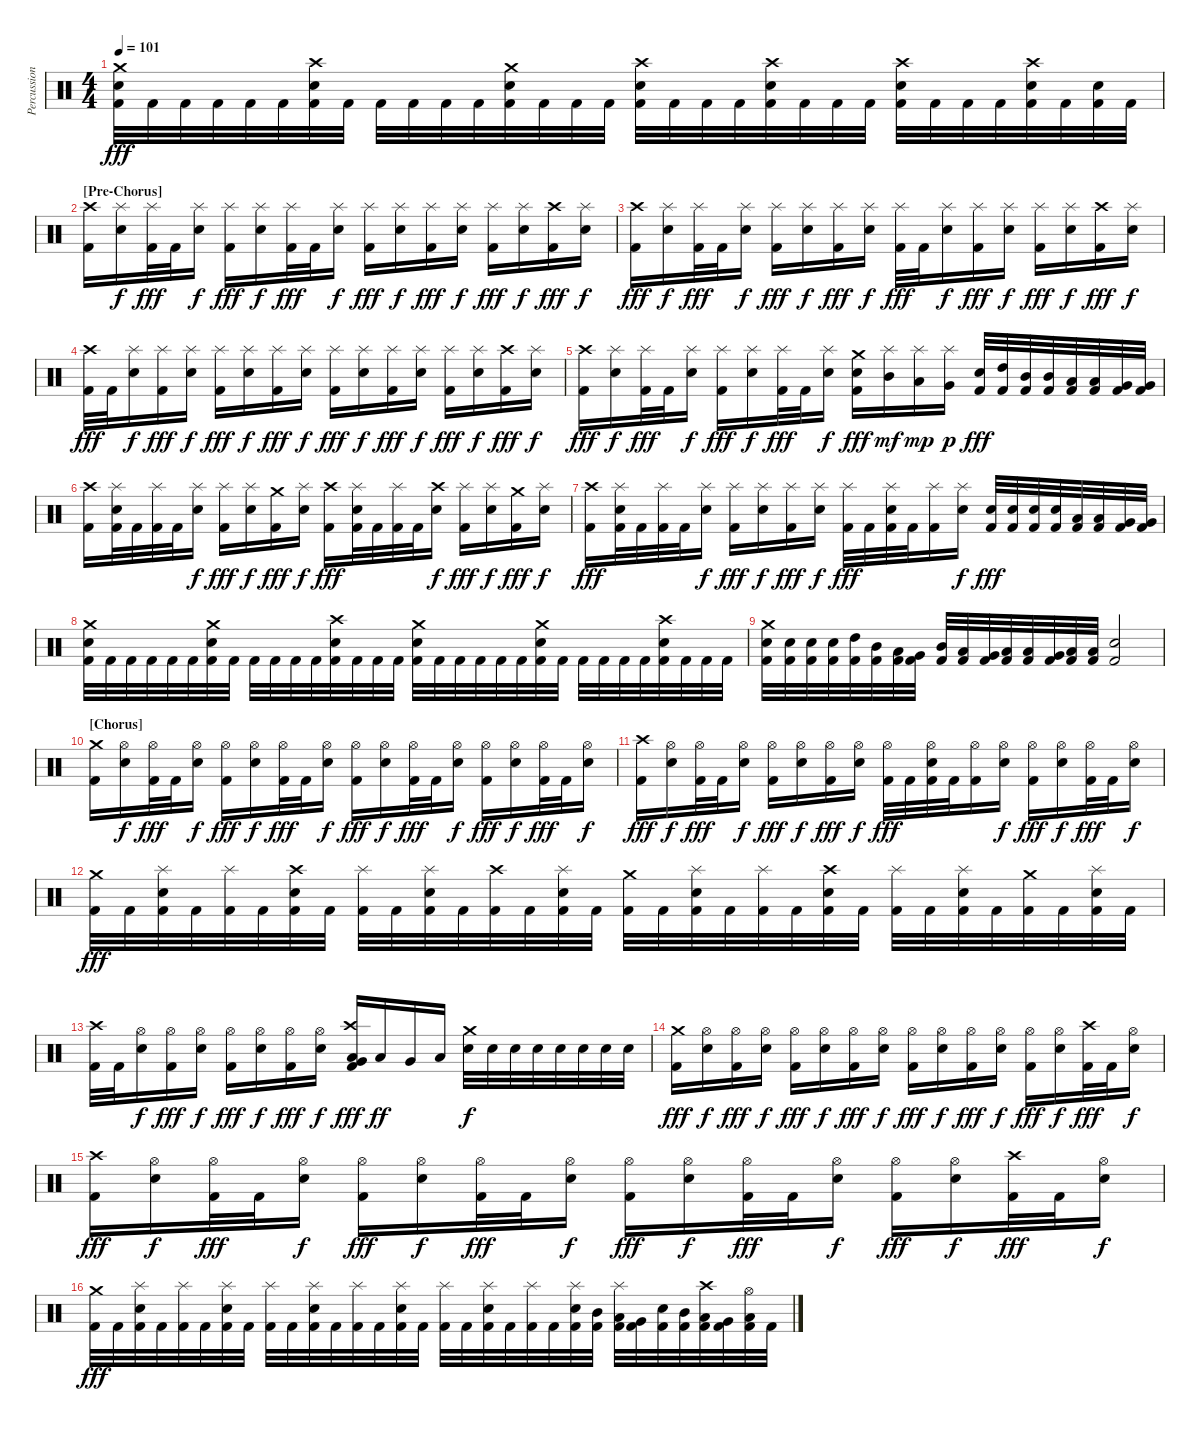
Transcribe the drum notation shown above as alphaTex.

\track ("Percussion" "Percussion") {instrument percussion}
\staff {score}
\articulation defaults
\ts (4 4)
\tempo 101
\clef neutral
\ks c
("Crash medium (hit)" "Snare (hit) 2" "Kick (hit) 2").32{dy fff} "Kick (hit) 2".32 "Kick (hit) 2".32 "Kick (hit) 2".32 "Kick (hit) 2".32 "Kick (hit) 2".32 ("Crash high (hit)" "Snare (hit) 2" "Kick (hit) 2").32 "Kick (hit) 2".32 "Kick (hit) 2".32 "Kick (hit) 2".32 "Kick (hit) 2".32 "Kick (hit) 2".32 ("Crash medium (hit)" "Snare (hit) 2" "Kick (hit) 2").32 "Kick (hit) 2".32 "Kick (hit) 2".32 "Kick (hit) 2".32 ("Crash high (hit)" "Snare (hit) 2" "Kick (hit) 2").32 "Kick (hit) 2".32 "Kick (hit) 2".32 "Kick (hit) 2".32 ("Crash high (hit)" "Snare (hit) 2" "Kick (hit) 2").32 "Kick (hit) 2".32 "Kick (hit) 2".32 "Kick (hit) 2".32 ("Crash high (hit)" "Snare (hit) 2" "Kick (hit) 2").32 "Kick (hit) 2".32 "Kick (hit) 2".32 "Kick (hit) 2".32 ("Crash high (hit)" "Snare (hit) 2" "Kick (hit) 2").32 "Kick (hit) 2".32 ("Snare (hit) 2" "Kick (hit) 2").32 "Kick (hit) 2".32 |
\section ("" "[Pre-Chorus]")
("Crash high (hit)" "Kick (hit) 2").16 ("Splash (hit)" "Snare (hit) 2").16{dy f} ("Splash (hit)" "Kick (hit) 2").32{dy fff} "Kick (hit) 2".32 ("Splash (hit)" "Snare (hit) 2").16{dy f} ("Splash (hit)" "Kick (hit) 2").16{dy fff} ("Splash (hit)" "Snare (hit) 2").16{dy f} ("Splash (hit)" "Kick (hit) 2").32{dy fff} "Kick (hit) 2".32 ("Splash (hit)" "Snare (hit) 2").16{dy f} ("Splash (hit)" "Kick (hit) 2").16{dy fff} ("Splash (hit)" "Snare (hit) 2").16{dy f} ("Splash (hit)" "Kick (hit) 2").16{dy fff} ("Splash (hit)" "Snare (hit) 2").16{dy f} ("Splash (hit)" "Kick (hit) 2").16{dy fff} ("Splash (hit)" "Snare (hit) 2").16{dy f} ("Crash high (hit)" "Kick (hit) 2").16{dy fff} ("Splash (hit)" "Snare (hit) 2").16{dy f} |
("Crash high (hit)" "Kick (hit) 2").16{dy fff} ("Splash (hit)" "Snare (hit) 2").16{dy f} ("Splash (hit)" "Kick (hit) 2").32{dy fff} "Kick (hit) 2".32 ("Splash (hit)" "Snare (hit) 2").16{dy f} ("Splash (hit)" "Kick (hit) 2").16{dy fff} ("Splash (hit)" "Snare (hit) 2").16{dy f} ("Splash (hit)" "Kick (hit) 2").16{dy fff} ("Splash (hit)" "Snare (hit) 2").16{dy f} ("Splash (hit)" "Kick (hit) 2").32{dy fff} "Kick (hit) 2".32 ("Splash (hit)" "Snare (hit) 2").16{dy f} ("Splash (hit)" "Kick (hit) 2").16{dy fff} ("Splash (hit)" "Snare (hit) 2").16{dy f} ("Splash (hit)" "Kick (hit) 2").16{dy fff} ("Splash (hit)" "Snare (hit) 2").16{dy f} ("Crash high (hit)" "Kick (hit) 2").16{dy fff} ("Splash (hit)" "Snare (hit) 2").16{dy f} |
("Crash high (hit)" "Kick (hit) 2").32{dy fff} "Kick (hit) 2".32 ("Splash (hit)" "Snare (hit) 2").16{dy f} ("Splash (hit)" "Kick (hit) 2").16{dy fff} ("Splash (hit)" "Snare (hit) 2").16{dy f} ("Splash (hit)" "Kick (hit) 2").16{dy fff} ("Splash (hit)" "Snare (hit) 2").16{dy f} ("Splash (hit)" "Kick (hit) 2").16{dy fff} ("Splash (hit)" "Snare (hit) 2").16{dy f} ("Splash (hit)" "Kick (hit) 2").16{dy fff} ("Splash (hit)" "Snare (hit) 2").16{dy f} ("Splash (hit)" "Kick (hit) 2").16{dy fff} ("Splash (hit)" "Snare (hit) 2").16{dy f} ("Splash (hit)" "Kick (hit) 2").16{dy fff} ("Splash (hit)" "Snare (hit) 2").16{dy f} ("Crash high (hit)" "Kick (hit) 2").16{dy fff} ("Splash (hit)" "Snare (hit) 2").16{dy f} |
("Crash high (hit)" "Kick (hit) 2").16{dy fff} ("Splash (hit)" "Snare (hit) 2").16{dy f} ("Splash (hit)" "Kick (hit) 2").32{dy fff} "Kick (hit) 2".32 ("Splash (hit)" "Snare (hit) 2").16{dy f} ("Splash (hit)" "Kick (hit) 2").16{dy fff} ("Splash (hit)" "Snare (hit) 2").16{dy f} ("Splash (hit)" "Kick (hit) 2").32{dy fff} "Kick (hit) 2".32 ("Splash (hit)" "Snare (hit) 2").16{dy f} ("Crash medium (hit)" "Snare (hit) 2" "Kick (hit) 2").16{dy fff} ("Splash (hit)" "Mid Tom (hit)").16{dy mf} ("Splash (hit)" "Low Tom (hit)").16{dy mp} ("Splash (hit)" "Very Low Tom (hit)").16{dy p} ("Snare (hit) 2" "Kick (hit) 2").32{dy fff} ("High Tom (hit)" "Kick (hit) 2").32 ("Mid Tom (hit)" "Kick (hit) 2").32 ("Mid Tom (hit)" "Kick (hit) 2").32 ("Low Tom (hit)" "Kick (hit) 2").32 ("Low Tom (hit)" "Kick (hit) 2").32 ("Very Low Tom (hit)" "Kick (hit) 2").32 ("Very Low Tom (hit)" "Kick (hit) 2").32 |
("Crash high (hit)" "Kick (hit) 2").16 ("Splash (hit)" "Snare (hit) 2" "Kick (hit) 2").32 "Kick (hit) 2".32 ("Splash (hit)" "Kick (hit) 2").32 "Kick (hit) 2".32 ("Splash (hit)" "Snare (hit) 2").16{dy f} ("Splash (hit)" "Kick (hit) 2").16{dy fff} ("Splash (hit)" "Snare (hit) 2").16{dy f} ("Crash medium (hit)" "Kick (hit) 2").16{dy fff} ("Splash (hit)" "Snare (hit) 2").16{dy f} ("Crash high (hit)" "Kick (hit) 2").16{dy fff} ("Splash (hit)" "Snare (hit) 2" "Kick (hit) 2").32 "Kick (hit) 2".32 ("Splash (hit)" "Kick (hit) 2").32 "Kick (hit) 2".32 ("Crash high (hit)" "Snare (hit) 2").16{dy f} ("Splash (hit)" "Kick (hit) 2").16{dy fff} ("Splash (hit)" "Snare (hit) 2").16{dy f} ("Crash medium (hit)" "Kick (hit) 2").16{dy fff} ("Splash (hit)" "Snare (hit) 2").16{dy f} |
("Crash high (hit)" "Kick (hit) 2").16{dy fff} ("Splash (hit)" "Snare (hit) 2" "Kick (hit) 2").32 "Kick (hit) 2".32 ("Splash (hit)" "Kick (hit) 2").32 "Kick (hit) 2".32 ("Splash (hit)" "Snare (hit) 2").16{dy f} ("Splash (hit)" "Kick (hit) 2").16{dy fff} ("Splash (hit)" "Snare (hit) 2").16{dy f} ("Splash (hit)" "Kick (hit) 2").16{dy fff} ("Splash (hit)" "Snare (hit) 2").16{dy f} ("Splash (hit)" "Kick (hit) 2").32{dy fff} "Kick (hit) 2".32 ("Splash (hit)" "Snare (hit) 2" "Kick (hit) 2").32 "Kick (hit) 2".32 ("Splash (hit)" "Kick (hit) 2").16 ("Splash (hit)" "Snare (hit) 2").16{dy f} ("Snare (hit) 2" "Kick (hit) 2").32{dy fff} ("Snare (hit) 2" "Kick (hit) 2").32 ("Snare (hit) 2" "Kick (hit) 2").32 ("Snare (hit) 2" "Kick (hit) 2").32 ("Low Tom (hit)" "Kick (hit) 2").32 ("Low Tom (hit)" "Kick (hit) 2").32 ("Very Low Tom (hit)" "Kick (hit) 2").32 ("Very Low Tom (hit)" "Kick (hit) 2").32 |
("Crash medium (hit)" "Snare (hit) 2" "Kick (hit) 2").32 "Kick (hit) 2".32 "Kick (hit) 2".32 "Kick (hit) 2".32 "Kick (hit) 2".32 "Kick (hit) 2".32 ("Crash medium (hit)" "Snare (hit) 2" "Kick (hit) 2").32 "Kick (hit) 2".32 "Kick (hit) 2".32 "Kick (hit) 2".32 "Kick (hit) 2".32 "Kick (hit) 2".32 ("Crash high (hit)" "Snare (hit) 2" "Kick (hit) 2").32 "Kick (hit) 2".32 "Kick (hit) 2".32 "Kick (hit) 2".32 ("Crash medium (hit)" "Snare (hit) 2" "Kick (hit) 2").32 "Kick (hit) 2".32 "Kick (hit) 2".32 "Kick (hit) 2".32 "Kick (hit) 2".32 "Kick (hit) 2".32 ("Crash medium (hit)" "Snare (hit) 2" "Kick (hit) 2").32 "Kick (hit) 2".32 "Kick (hit) 2".32 "Kick (hit) 2".32 "Kick (hit) 2".32 "Kick (hit) 2".32 ("Crash high (hit)" "Snare (hit) 2" "Kick (hit) 2").32 "Kick (hit) 2".32 "Kick (hit) 2".32 "Kick (hit) 2".32 |
("Crash medium (hit)" "Snare (hit) 2" "Kick (hit) 2").32 ("Snare (hit) 2" "Kick (hit) 2").32 ("Snare (hit) 2" "Kick (hit) 2").32 ("Snare (hit) 2" "Kick (hit) 2").32 ("High Tom (hit)" "Kick (hit) 2").32 ("Mid Tom (hit)" "Kick (hit) 2").32 ("Low Tom (hit)" "Kick (hit) 2").32 ("Very Low Tom (hit)" "Kick (hit) 2").32 ("Mid Tom (hit)" "Kick (hit) 2").32 ("Low Tom (hit)" "Kick (hit) 2").32 ("Very Low Tom (hit)" "Kick (hit) 2").32 ("Low Floor Tom (hit)" "Kick (hit) 2").32 ("Low Tom (hit)" "Kick (hit) 2").32 ("Very Low Tom (hit)" "Kick (hit) 2").32 ("Low Floor Tom (hit)" "Kick (hit) 2").32 ("Low Floor Tom (hit)" "Kick (hit) 2").32 ("Snare (hit) 2" "Kick (hit) 2").2 |
\section ("" "[Chorus]")
("Crash medium (hit)" "Kick (hit) 2").16 ("Hi-Hat (open)" "Snare (hit) 2").16{dy f} ("Hi-Hat (open)" "Kick (hit) 2").32{dy fff} "Kick (hit) 2".32 ("Hi-Hat (open)" "Snare (hit) 2").16{dy f} ("Hi-Hat (open)" "Kick (hit) 2").16{dy fff} ("Hi-Hat (open)" "Snare (hit) 2").16{dy f} ("Hi-Hat (open)" "Kick (hit) 2").32{dy fff} "Kick (hit) 2".32 ("Hi-Hat (open)" "Snare (hit) 2").16{dy f} ("Hi-Hat (open)" "Kick (hit) 2").16{dy fff} ("Hi-Hat (open)" "Snare (hit) 2").16{dy f} ("Hi-Hat (open)" "Kick (hit) 2").32{dy fff} "Kick (hit) 2".32 ("Hi-Hat (open)" "Snare (hit) 2").16{dy f} ("Hi-Hat (open)" "Kick (hit) 2").16{dy fff} ("Hi-Hat (open)" "Snare (hit) 2").16{dy f} ("Hi-Hat (open)" "Kick (hit) 2").32{dy fff} "Kick (hit) 2".32 ("Hi-Hat (open)" "Snare (hit) 2").16{dy f} |
("Crash high (hit)" "Kick (hit) 2").16{dy fff} ("Hi-Hat (open)" "Snare (hit) 2").16{dy f} ("Hi-Hat (open)" "Kick (hit) 2").32{dy fff} "Kick (hit) 2".32 ("Hi-Hat (open)" "Snare (hit) 2").16{dy f} ("Hi-Hat (open)" "Kick (hit) 2").16{dy fff} ("Hi-Hat (open)" "Snare (hit) 2").16{dy f} ("Hi-Hat (open)" "Kick (hit) 2").16{dy fff} ("Hi-Hat (open)" "Snare (hit) 2").16{dy f} ("Hi-Hat (open)" "Kick (hit) 2").32{dy fff} "Kick (hit) 2".32 ("Hi-Hat (open)" "Snare (hit) 2" "Kick (hit) 2").32 "Kick (hit) 2".32 ("Hi-Hat (open)" "Kick (hit) 2").16 ("Hi-Hat (open)" "Snare (hit) 2").16{dy f} ("Hi-Hat (open)" "Kick (hit) 2").16{dy fff} ("Hi-Hat (open)" "Snare (hit) 2").16{dy f} ("Hi-Hat (open)" "Kick (hit) 2").32{dy fff} "Kick (hit) 2".32 ("Hi-Hat (open)" "Snare (hit) 2").16{dy f} |
("Crash medium (hit)" "Kick (hit) 2").32{dy fff} "Kick (hit) 2".32 ("Splash (hit)" "Snare (hit) 2" "Kick (hit) 2").32 "Kick (hit) 2".32 ("Splash (hit)" "Kick (hit) 2").32 "Kick (hit) 2".32 ("Crash high (hit)" "Snare (hit) 2" "Kick (hit) 2").32 "Kick (hit) 2".32 ("Splash (hit)" "Kick (hit) 2").32 "Kick (hit) 2".32 ("Splash (hit)" "Snare (hit) 2" "Kick (hit) 2").32 "Kick (hit) 2".32 ("Crash high (hit)" "Kick (hit) 2").32 "Kick (hit) 2".32 ("Splash (hit)" "Snare (hit) 2" "Kick (hit) 2").32 "Kick (hit) 2".32 ("Crash medium (hit)" "Kick (hit) 2").32 "Kick (hit) 2".32 ("Splash (hit)" "Snare (hit) 2" "Kick (hit) 2").32 "Kick (hit) 2".32 ("Splash (hit)" "Kick (hit) 2").32 "Kick (hit) 2".32 ("Crash high (hit)" "Snare (hit) 2" "Kick (hit) 2").32 "Kick (hit) 2".32 ("Splash (hit)" "Kick (hit) 2").32 "Kick (hit) 2".32 ("Splash (hit)" "Snare (hit) 2" "Kick (hit) 2").32 "Kick (hit) 2".32 ("Crash medium (hit)" "Kick (hit) 2").32 "Kick (hit) 2".32 ("Splash (hit)" "Snare (hit) 2" "Kick (hit) 2").32 "Kick (hit) 2".32 |
("Crash high (hit)" "Kick (hit) 2").32 "Kick (hit) 2".32 ("Hi-Hat (open)" "Snare (hit) 2").16{dy f} ("Hi-Hat (open)" "Kick (hit) 2").16{dy fff} ("Hi-Hat (open)" "Snare (hit) 2").16{dy f} ("Hi-Hat (open)" "Kick (hit) 2").16{dy fff} ("Hi-Hat (open)" "Snare (hit) 2").16{dy f} ("Hi-Hat (open)" "Kick (hit) 2").16{dy fff} ("Hi-Hat (open)" "Snare (hit) 2").16{dy f} ("Crash high (hit)" "Very Low Tom (hit)" "Low Tom (hit)" "Kick (hit) 2").16{dy fff} "Low Tom (hit)".16{dy ff} "Very Low Tom (hit)".16 "Low Floor Tom (hit)".16 ("Crash medium (hit)" "Snare (hit) 2").32{dy f} "Snare (hit) 2".32 "Snare (hit) 2".32 "Snare (hit) 2".32 "Snare (hit) 2".32 "Snare (hit) 2".32 "Snare (hit) 2".32 "Snare (hit) 2".32 |
("Crash medium (hit)" "Kick (hit) 2").16{dy fff} ("Hi-Hat (open)" "Snare (hit) 2").16{dy f} ("Hi-Hat (open)" "Kick (hit) 2").16{dy fff} ("Hi-Hat (open)" "Snare (hit) 2").16{dy f} ("Hi-Hat (open)" "Kick (hit) 2").16{dy fff} ("Hi-Hat (open)" "Snare (hit) 2").16{dy f} ("Hi-Hat (open)" "Kick (hit) 2").16{dy fff} ("Hi-Hat (open)" "Snare (hit) 2").16{dy f} ("Hi-Hat (open)" "Kick (hit) 2").16{dy fff} ("Hi-Hat (open)" "Snare (hit) 2").16{dy f} ("Hi-Hat (open)" "Kick (hit) 2").16{dy fff} ("Hi-Hat (open)" "Snare (hit) 2").16{dy f} ("Hi-Hat (open)" "Kick (hit) 2").16{dy fff} ("Hi-Hat (open)" "Snare (hit) 2").16{dy f} ("Crash high (hit)" "Kick (hit) 2").32{dy fff} "Kick (hit) 2".32 ("Hi-Hat (open)" "Snare (hit) 2").16{dy f} |
("Crash high (hit)" "Kick (hit) 2").16{dy fff} ("Hi-Hat (open)" "Snare (hit) 2").16{dy f} ("Hi-Hat (open)" "Kick (hit) 2").32{dy fff} "Kick (hit) 2".32 ("Hi-Hat (open)" "Snare (hit) 2").16{dy f} ("Hi-Hat (open)" "Kick (hit) 2").16{dy fff} ("Hi-Hat (open)" "Snare (hit) 2").16{dy f} ("Hi-Hat (open)" "Kick (hit) 2").32{dy fff} "Kick (hit) 2".32 ("Hi-Hat (open)" "Snare (hit) 2").16{dy f} ("Hi-Hat (open)" "Kick (hit) 2").16{dy fff} ("Hi-Hat (open)" "Snare (hit) 2").16{dy f} ("Hi-Hat (open)" "Kick (hit) 2").32{dy fff} "Kick (hit) 2".32 ("Hi-Hat (open)" "Snare (hit) 2").16{dy f} ("Hi-Hat (open)" "Kick (hit) 2").16{dy fff} ("Hi-Hat (open)" "Snare (hit) 2").16{dy f} ("Crash high (hit)" "Kick (hit) 2").32{dy fff} "Kick (hit) 2".32 ("Hi-Hat (open)" "Snare (hit) 2").16{dy f} |
("Crash medium (hit)" "Kick (hit) 2").32{dy fff} "Kick (hit) 2".32 ("Splash (hit)" "Snare (hit) 2" "Kick (hit) 2").32 "Kick (hit) 2".32 ("Splash (hit)" "Kick (hit) 2").32 "Kick (hit) 2".32 ("Splash (hit)" "Snare (hit) 2" "Kick (hit) 2").32 "Kick (hit) 2".32 ("Splash (hit)" "Kick (hit) 2").32 "Kick (hit) 2".32 ("Splash (hit)" "Snare (hit) 2" "Kick (hit) 2").32 "Kick (hit) 2".32 ("Splash (hit)" "Kick (hit) 2").32 "Kick (hit) 2".32 ("Splash (hit)" "Snare (hit) 2" "Kick (hit) 2").32 "Kick (hit) 2".32 ("Splash (hit)" "Kick (hit) 2").32 "Kick (hit) 2".32 ("Splash (hit)" "Snare (hit) 2" "Kick (hit) 2").32 "Kick (hit) 2".32 ("Splash (hit)" "Kick (hit) 2").32 "Kick (hit) 2".32 ("Splash (hit)" "Snare (hit) 2" "Kick (hit) 2").32 ("Mid Tom (hit)" "Kick (hit) 2").32 ("Splash (hit)" "Low Tom (hit)" "Kick (hit) 2").32 ("Very Low Tom (hit)" "Kick (hit) 2").32 ("Snare (hit) 2" "Kick (hit) 2").32 ("Mid Tom (hit)" "Kick (hit) 2").32 ("Crash high (hit)" "Low Tom (hit)" "Kick (hit) 2").32 ("Very Low Tom (hit)" "Kick (hit) 2").32 ("Hi-Hat (open)" "Low Floor Tom (hit)" "Kick (hit) 2").32 "Kick (hit) 2".32
